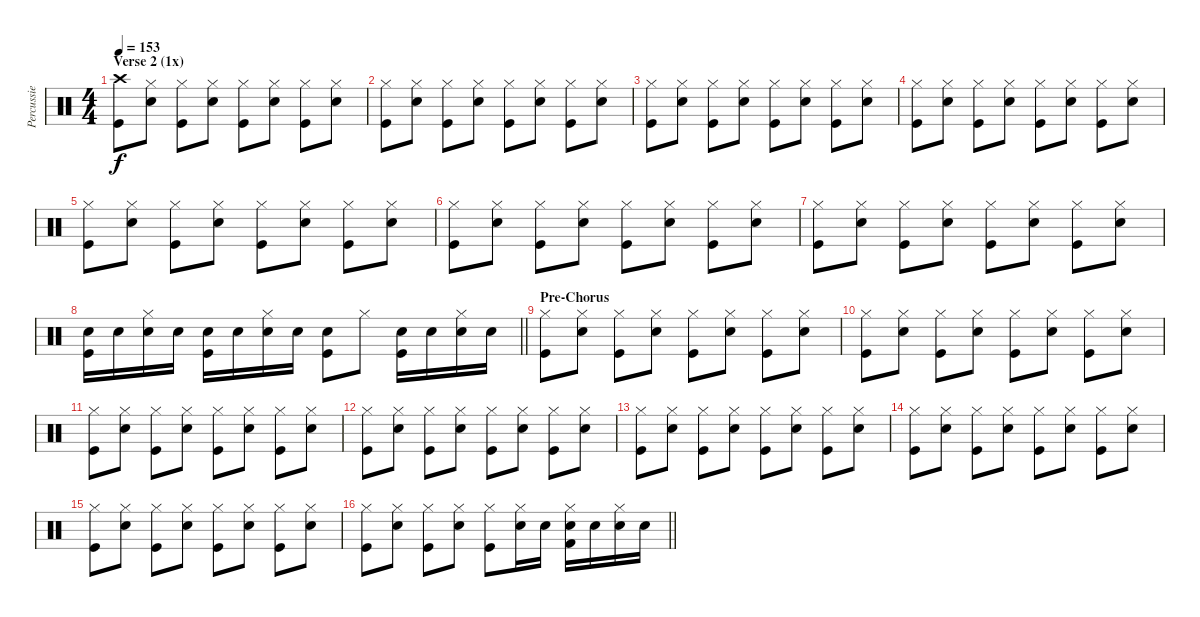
\track ("Percussie George Schwindt" "Percussie ") {instrument percussion}
\staff {score}
\articulation defaults
\ts (4 4)
\section ("" "Verse 2 (1x)")
\tempo 153
\clef neutral
\ks c
("Crash high (hit)" "Kick (hit)").8{dy f} ("Electric Snare (hit)" "Hi-Hat (closed)").8 ("Hi-Hat (closed)" "Kick (hit)").8 ("Electric Snare (hit)" "Hi-Hat (closed)").8 ("Hi-Hat (closed)" "Kick (hit)").8 ("Electric Snare (hit)" "Hi-Hat (closed)").8 ("Hi-Hat (closed)" "Kick (hit)").8 ("Electric Snare (hit)" "Hi-Hat (closed)").8 |
("Hi-Hat (closed)" "Kick (hit)").8 ("Electric Snare (hit)" "Hi-Hat (closed)").8 ("Hi-Hat (closed)" "Kick (hit)").8 ("Electric Snare (hit)" "Hi-Hat (closed)").8 ("Hi-Hat (closed)" "Kick (hit)").8 ("Electric Snare (hit)" "Hi-Hat (closed)").8 ("Hi-Hat (closed)" "Kick (hit)").8 ("Electric Snare (hit)" "Hi-Hat (closed)").8 |
("Hi-Hat (closed)" "Kick (hit)").8 ("Electric Snare (hit)" "Hi-Hat (closed)").8 ("Hi-Hat (closed)" "Kick (hit)").8 ("Electric Snare (hit)" "Hi-Hat (closed)").8 ("Hi-Hat (closed)" "Kick (hit)").8 ("Electric Snare (hit)" "Hi-Hat (closed)").8 ("Hi-Hat (closed)" "Kick (hit)").8 ("Electric Snare (hit)" "Hi-Hat (closed)").8 |
("Hi-Hat (closed)" "Kick (hit)").8 ("Electric Snare (hit)" "Hi-Hat (closed)").8 ("Hi-Hat (closed)" "Kick (hit)").8 ("Electric Snare (hit)" "Hi-Hat (closed)").8 ("Hi-Hat (closed)" "Kick (hit)").8 ("Electric Snare (hit)" "Hi-Hat (closed)").8 ("Hi-Hat (closed)" "Kick (hit)").8 ("Electric Snare (hit)" "Hi-Hat (closed)").8 |
("Hi-Hat (closed)" "Kick (hit)").8 ("Electric Snare (hit)" "Hi-Hat (closed)").8 ("Hi-Hat (closed)" "Kick (hit)").8 ("Electric Snare (hit)" "Hi-Hat (closed)").8 ("Hi-Hat (closed)" "Kick (hit)").8 ("Electric Snare (hit)" "Hi-Hat (closed)").8 ("Hi-Hat (closed)" "Kick (hit)").8 ("Electric Snare (hit)" "Hi-Hat (closed)").8 |
("Hi-Hat (closed)" "Kick (hit)").8 ("Electric Snare (hit)" "Hi-Hat (closed)").8 ("Hi-Hat (closed)" "Kick (hit)").8 ("Electric Snare (hit)" "Hi-Hat (closed)").8 ("Hi-Hat (closed)" "Kick (hit)").8 ("Electric Snare (hit)" "Hi-Hat (closed)").8 ("Hi-Hat (closed)" "Kick (hit)").8 ("Electric Snare (hit)" "Hi-Hat (closed)").8 |
("Hi-Hat (closed)" "Kick (hit)").8 ("Electric Snare (hit)" "Hi-Hat (closed)").8 ("Hi-Hat (closed)" "Kick (hit)").8 ("Electric Snare (hit)" "Hi-Hat (closed)").8 ("Hi-Hat (closed)" "Kick (hit)").8 ("Electric Snare (hit)" "Hi-Hat (closed)").8 ("Hi-Hat (closed)" "Kick (hit)").8 ("Electric Snare (hit)" "Hi-Hat (closed)").8 |
\barLineRight lightlight
("Electric Snare (hit)" "Kick (hit)").16 "Electric Snare (hit)".16 ("Electric Snare (hit)" "Hi-Hat (closed)").16 "Electric Snare (hit)".16 ("Electric Snare (hit)" "Kick (hit)").16 "Electric Snare (hit)".16 ("Electric Snare (hit)" "Hi-Hat (closed)").16 "Electric Snare (hit)".16 ("Electric Snare (hit)" "Kick (hit)").8 "Hi-Hat (closed)".8 ("Electric Snare (hit)" "Kick (hit)").16 "Electric Snare (hit)".16 ("Electric Snare (hit)" "Hi-Hat (closed)").16 "Electric Snare (hit)".16 |
\section ("" "Pre-Chorus")
("Hi-Hat (closed)" "Kick (hit)").8 ("Electric Snare (hit)" "Hi-Hat (closed)").8 ("Hi-Hat (closed)" "Kick (hit)").8 ("Electric Snare (hit)" "Hi-Hat (closed)").8 ("Hi-Hat (closed)" "Kick (hit)").8 ("Electric Snare (hit)" "Hi-Hat (closed)").8 ("Hi-Hat (closed)" "Kick (hit)").8 ("Electric Snare (hit)" "Hi-Hat (closed)").8 |
("Hi-Hat (closed)" "Kick (hit)").8 ("Electric Snare (hit)" "Hi-Hat (closed)").8 ("Hi-Hat (closed)" "Kick (hit)").8 ("Electric Snare (hit)" "Hi-Hat (closed)").8 ("Hi-Hat (closed)" "Kick (hit)").8 ("Electric Snare (hit)" "Hi-Hat (closed)").8 ("Hi-Hat (closed)" "Kick (hit)").8 ("Electric Snare (hit)" "Hi-Hat (closed)").8 |
("Hi-Hat (closed)" "Kick (hit)").8 ("Electric Snare (hit)" "Hi-Hat (closed)").8 ("Hi-Hat (closed)" "Kick (hit)").8 ("Electric Snare (hit)" "Hi-Hat (closed)").8 ("Hi-Hat (closed)" "Kick (hit)").8 ("Electric Snare (hit)" "Hi-Hat (closed)").8 ("Hi-Hat (closed)" "Kick (hit)").8 ("Electric Snare (hit)" "Hi-Hat (closed)").8 |
("Hi-Hat (closed)" "Kick (hit)").8 ("Electric Snare (hit)" "Hi-Hat (closed)").8 ("Hi-Hat (closed)" "Kick (hit)").8 ("Electric Snare (hit)" "Hi-Hat (closed)").8 ("Hi-Hat (closed)" "Kick (hit)").8 ("Electric Snare (hit)" "Hi-Hat (closed)").8 ("Hi-Hat (closed)" "Kick (hit)").8 ("Electric Snare (hit)" "Hi-Hat (closed)").8 |
("Hi-Hat (closed)" "Kick (hit)").8 ("Electric Snare (hit)" "Hi-Hat (closed)").8 ("Hi-Hat (closed)" "Kick (hit)").8 ("Electric Snare (hit)" "Hi-Hat (closed)").8 ("Hi-Hat (closed)" "Kick (hit)").8 ("Electric Snare (hit)" "Hi-Hat (closed)").8 ("Hi-Hat (closed)" "Kick (hit)").8 ("Electric Snare (hit)" "Hi-Hat (closed)").8 |
("Hi-Hat (closed)" "Kick (hit)").8 ("Electric Snare (hit)" "Hi-Hat (closed)").8 ("Hi-Hat (closed)" "Kick (hit)").8 ("Electric Snare (hit)" "Hi-Hat (closed)").8 ("Hi-Hat (closed)" "Kick (hit)").8 ("Electric Snare (hit)" "Hi-Hat (closed)").8 ("Hi-Hat (closed)" "Kick (hit)").8 ("Electric Snare (hit)" "Hi-Hat (closed)").8 |
("Hi-Hat (closed)" "Kick (hit)").8 ("Electric Snare (hit)" "Hi-Hat (closed)").8 ("Hi-Hat (closed)" "Kick (hit)").8 ("Electric Snare (hit)" "Hi-Hat (closed)").8 ("Hi-Hat (closed)" "Kick (hit)").8 ("Electric Snare (hit)" "Hi-Hat (closed)").8 ("Hi-Hat (closed)" "Kick (hit)").8 ("Electric Snare (hit)" "Hi-Hat (closed)").8 |
\barLineRight lightlight
("Hi-Hat (closed)" "Kick (hit)").8 ("Electric Snare (hit)" "Hi-Hat (closed)").8 ("Hi-Hat (closed)" "Kick (hit)").8 ("Electric Snare (hit)" "Hi-Hat (closed)").8 ("Hi-Hat (closed)" "Kick (hit)").8 ("Electric Snare (hit)" "Hi-Hat (closed)").16 "Electric Snare (hit)".16 ("Electric Snare (hit)" "Hi-Hat (closed)" "Kick (hit) 2").16 "Electric Snare (hit)".16 ("Electric Snare (hit)" "Hi-Hat (closed)").16 "Electric Snare (hit)".16
